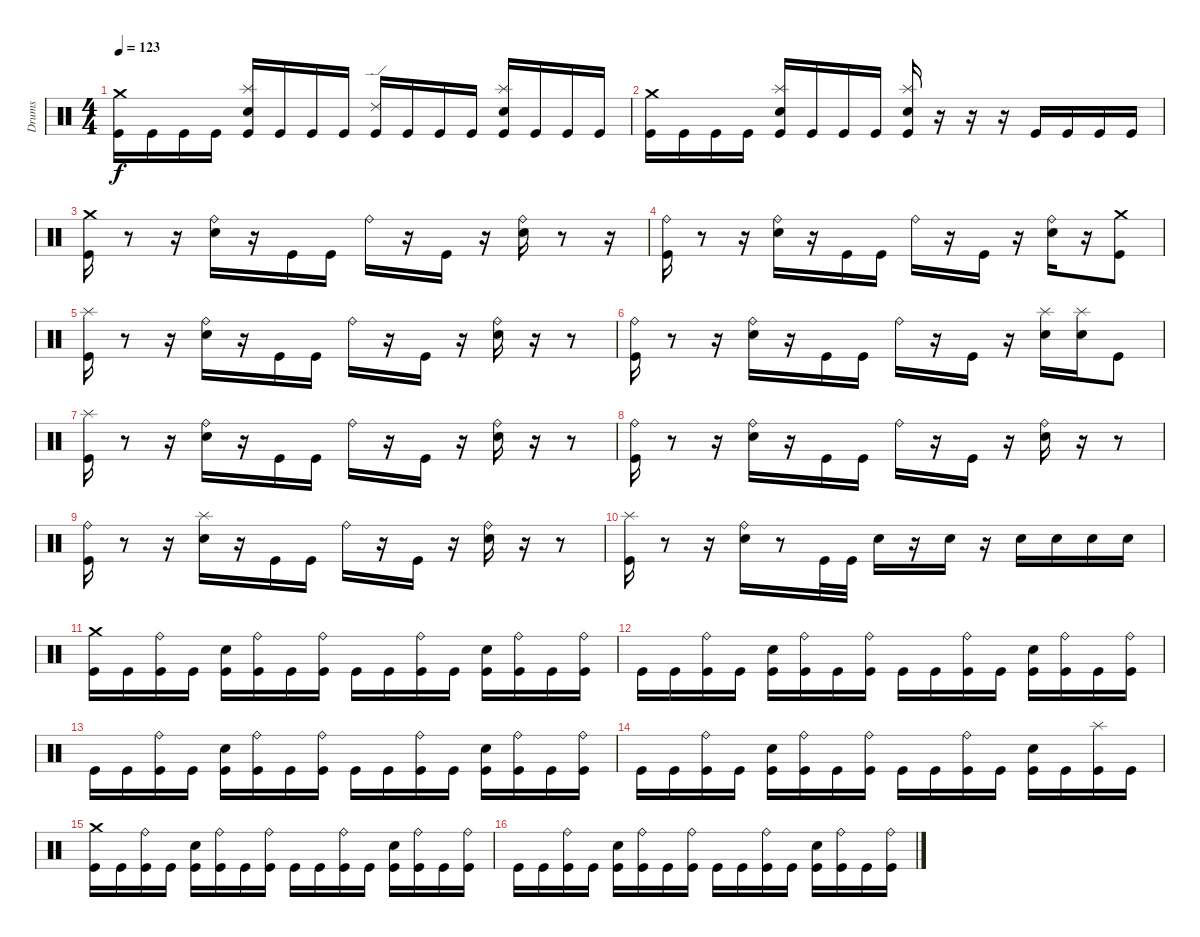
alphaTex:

\track ("Drums" "Drums") {instrument percussion}
\staff {score}
\articulation defaults
\ts (4 4)
\tempo 123
\clef neutral
\ks c
("Crash medium (hit)" "Kick (hit)").16{dy f} "Kick (hit)".16 "Kick (hit)".16 "Kick (hit)".16 ("Splash (hit)" "Electric Snare (hit)" "Kick (hit)").16 "Kick (hit)".16 "Kick (hit)".16 "Kick (hit)".16 ("Ride (edge) 2" "Kick (hit)").16 "Kick (hit)".16 "Kick (hit)".16 "Kick (hit)".16 ("Splash (hit)" "Electric Snare (hit)" "Kick (hit)").16 "Kick (hit)".16 "Kick (hit)".16 "Kick (hit)".16 |
("Crash medium (hit)" "Kick (hit)").16 "Kick (hit)".16 "Kick (hit)".16 "Kick (hit)".16 ("Splash (hit)" "Electric Snare (hit)" "Kick (hit)").16 "Kick (hit)".16 "Kick (hit)".16 "Kick (hit)".16 ("Splash (hit)" "Electric Snare (hit)" "Kick (hit)").16 r.16 r.16 r.16 "Kick (hit)".16 "Kick (hit)".16 "Kick (hit)".16 "Kick (hit)".16 |
("Crash medium (hit)" "Kick (hit)").16 r.8 r.16 ("Ride (bell)" "Electric Snare (hit)").16 r.16 "Kick (hit)".16 "Kick (hit)".16 "Ride (bell)".16 r.16 "Kick (hit)".16 r.16 ("Ride (bell)" "Electric Snare (hit)").16 r.8 r.16 |
("Ride (bell)" "Kick (hit)").16 r.8 r.16 ("Ride (bell)" "Electric Snare (hit)").16 r.16 "Kick (hit)".16 "Kick (hit)".16 "Ride (bell)".16 r.16 "Kick (hit)".16 r.16 ("Ride (bell)" "Electric Snare (hit)").16 r.16 ("Crash medium (hit)" "Kick (hit)").8 |
("Splash (hit)" "Kick (hit)").16 r.8 r.16 ("Ride (bell)" "Electric Snare (hit)").16 r.16 "Kick (hit)".16 "Kick (hit)".16 "Ride (bell)".16 r.16 "Kick (hit)".16 r.16 ("Ride (bell)" "Electric Snare (hit)").16 r.16 r.8 |
("Ride (bell)" "Kick (hit)").16 r.8 r.16 ("Ride (bell)" "Electric Snare (hit)").16 r.16 "Kick (hit)".16 "Kick (hit)".16 "Ride (bell)".16 r.16 "Kick (hit)".16 r.16 ("Splash (hit)" "Electric Snare (hit)").16 ("Splash (hit)" "Electric Snare (hit)").16 "Kick (hit)".8 |
("Splash (hit)" "Kick (hit)").16 r.8 r.16 ("Ride (bell)" "Electric Snare (hit)").16 r.16 "Kick (hit)".16 "Kick (hit)".16 "Ride (bell)".16 r.16 "Kick (hit)".16 r.16 ("Ride (bell)" "Electric Snare (hit)").16 r.16 r.8 |
("Ride (bell)" "Kick (hit)").16 r.8 r.16 ("Ride (bell)" "Electric Snare (hit)").16 r.16 "Kick (hit)".16 "Kick (hit)".16 "Ride (bell)".16 r.16 "Kick (hit)".16 r.16 ("Ride (bell)" "Electric Snare (hit)").16 r.16 r.8 |
("Ride (bell)" "Kick (hit)").16 r.8 r.16 ("Splash (hit)" "Electric Snare (hit)").16 r.16 "Kick (hit)".16 "Kick (hit)".16 "Ride (bell)".16 r.16 "Kick (hit)".16 r.16 ("Ride (bell)" "Electric Snare (hit)").16 r.16 r.8 |
("Splash (hit)" "Kick (hit)").16 r.8 r.16 ("Ride (bell)" "Electric Snare (hit)").16 r.8 "Kick (hit)".32 "Kick (hit)".32 "Electric Snare (hit)".16 r.16 "Electric Snare (hit)".16 r.16 "Electric Snare (hit)".16 "Electric Snare (hit)".16 "Electric Snare (hit)".16 "Electric Snare (hit)".16 |
("Crash medium (hit)" "Kick (hit)").16 "Kick (hit)".16 ("Ride (bell)" "Kick (hit)").16 "Kick (hit)".16 ("Electric Snare (hit)" "Kick (hit)").16 ("Ride (bell)" "Kick (hit)").16 "Kick (hit)".16 ("Ride (bell)" "Kick (hit)").16 "Kick (hit)".16 "Kick (hit)".16 ("Ride (bell)" "Kick (hit)").16 "Kick (hit)".16 ("Electric Snare (hit)" "Kick (hit)").16 ("Ride (bell)" "Kick (hit)").16 "Kick (hit)".16 ("Ride (bell)" "Kick (hit)").16 |
"Kick (hit)".16 "Kick (hit)".16 ("Ride (bell)" "Kick (hit)").16 "Kick (hit)".16 ("Electric Snare (hit)" "Kick (hit)").16 ("Ride (bell)" "Kick (hit)").16 "Kick (hit)".16 ("Ride (bell)" "Kick (hit)").16 "Kick (hit)".16 "Kick (hit)".16 ("Ride (bell)" "Kick (hit)").16 "Kick (hit)".16 ("Electric Snare (hit)" "Kick (hit)").16 ("Ride (bell)" "Kick (hit)").16 "Kick (hit)".16 ("Ride (bell)" "Kick (hit)").16 |
"Kick (hit)".16 "Kick (hit)".16 ("Ride (bell)" "Kick (hit)").16 "Kick (hit)".16 ("Electric Snare (hit)" "Kick (hit)").16 ("Ride (bell)" "Kick (hit)").16 "Kick (hit)".16 ("Ride (bell)" "Kick (hit)").16 "Kick (hit)".16 "Kick (hit)".16 ("Ride (bell)" "Kick (hit)").16 "Kick (hit)".16 ("Electric Snare (hit)" "Kick (hit)").16 ("Ride (bell)" "Kick (hit)").16 "Kick (hit)".16 ("Ride (bell)" "Kick (hit)").16 |
"Kick (hit)".16 "Kick (hit)".16 ("Ride (bell)" "Kick (hit)").16 "Kick (hit)".16 ("Electric Snare (hit)" "Kick (hit)").16 ("Ride (bell)" "Kick (hit)").16 "Kick (hit)".16 ("Ride (bell)" "Kick (hit)").16 "Kick (hit)".16 "Kick (hit)".16 ("Ride (bell)" "Kick (hit)").16 "Kick (hit)".16 ("Electric Snare (hit)" "Kick (hit)").16 "Kick (hit)".16 ("Splash (hit)" "Kick (hit)").16 "Kick (hit)".16 |
("Crash medium (hit)" "Kick (hit)").16 "Kick (hit)".16 ("Ride (bell)" "Kick (hit)").16 "Kick (hit)".16 ("Electric Snare (hit)" "Kick (hit)").16 ("Ride (bell)" "Kick (hit)").16 "Kick (hit)".16 ("Ride (bell)" "Kick (hit)").16 "Kick (hit)".16 "Kick (hit)".16 ("Ride (bell)" "Kick (hit)").16 "Kick (hit)".16 ("Electric Snare (hit)" "Kick (hit)").16 ("Ride (bell)" "Kick (hit)").16 "Kick (hit)".16 ("Ride (bell)" "Kick (hit)").16 |
"Kick (hit)".16 "Kick (hit)".16 ("Ride (bell)" "Kick (hit)").16 "Kick (hit)".16 ("Electric Snare (hit)" "Kick (hit)").16 ("Ride (bell)" "Kick (hit)").16 "Kick (hit)".16 ("Ride (bell)" "Kick (hit)").16 "Kick (hit)".16 "Kick (hit)".16 ("Ride (bell)" "Kick (hit)").16 "Kick (hit)".16 ("Electric Snare (hit)" "Kick (hit)").16 ("Ride (bell)" "Kick (hit)").16 "Kick (hit)".16 ("Ride (bell)" "Kick (hit)").16
